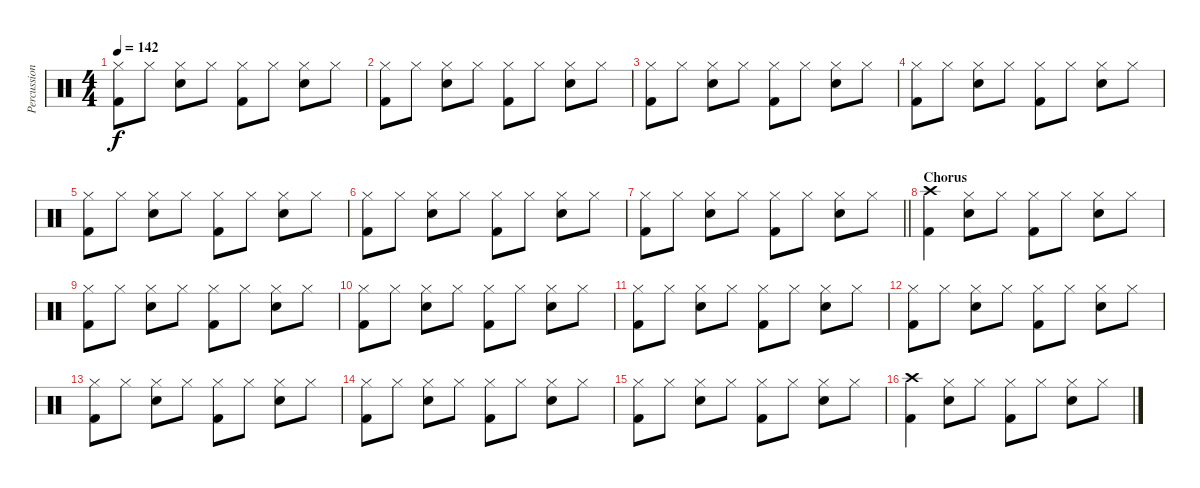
\track ("Percussion" "Percussion") {instrument percussion}
\staff {score}
\articulation defaults
\ts (4 4)
\tempo 142
\clef neutral
\ks c
("Hi-Hat (closed)" "Kick (hit) 2").8{dy f} "Hi-Hat (closed)".8 ("Hi-Hat (closed)" "Snare (hit) 2").8 "Hi-Hat (closed)".8 ("Hi-Hat (closed)" "Kick (hit) 2").8 "Hi-Hat (closed)".8 ("Hi-Hat (closed)" "Snare (hit) 2").8 "Hi-Hat (closed)".8 |
("Hi-Hat (closed)" "Kick (hit) 2").8 "Hi-Hat (closed)".8 ("Hi-Hat (closed)" "Snare (hit) 2").8 "Hi-Hat (closed)".8 ("Hi-Hat (closed)" "Kick (hit) 2").8 "Hi-Hat (closed)".8 ("Hi-Hat (closed)" "Snare (hit) 2").8 "Hi-Hat (closed)".8 |
("Hi-Hat (closed)" "Kick (hit) 2").8 "Hi-Hat (closed)".8 ("Hi-Hat (closed)" "Snare (hit) 2").8 "Hi-Hat (closed)".8 ("Hi-Hat (closed)" "Kick (hit) 2").8 "Hi-Hat (closed)".8 ("Hi-Hat (closed)" "Snare (hit) 2").8 "Hi-Hat (closed)".8 |
("Hi-Hat (closed)" "Kick (hit) 2").8 "Hi-Hat (closed)".8 ("Hi-Hat (closed)" "Snare (hit) 2").8 "Hi-Hat (closed)".8 ("Hi-Hat (closed)" "Kick (hit) 2").8 "Hi-Hat (closed)".8 ("Hi-Hat (closed)" "Snare (hit) 2").8 "Hi-Hat (closed)".8 |
("Hi-Hat (closed)" "Kick (hit) 2").8 "Hi-Hat (closed)".8 ("Hi-Hat (closed)" "Snare (hit) 2").8 "Hi-Hat (closed)".8 ("Hi-Hat (closed)" "Kick (hit) 2").8 "Hi-Hat (closed)".8 ("Hi-Hat (closed)" "Snare (hit) 2").8 "Hi-Hat (closed)".8 |
("Hi-Hat (closed)" "Kick (hit) 2").8 "Hi-Hat (closed)".8 ("Hi-Hat (closed)" "Snare (hit) 2").8 "Hi-Hat (closed)".8 ("Hi-Hat (closed)" "Kick (hit) 2").8 "Hi-Hat (closed)".8 ("Hi-Hat (closed)" "Snare (hit) 2").8 "Hi-Hat (closed)".8 |
\barLineRight lightlight
("Hi-Hat (closed)" "Kick (hit) 2").8 "Hi-Hat (closed)".8 ("Hi-Hat (closed)" "Snare (hit) 2").8 "Hi-Hat (closed)".8 ("Hi-Hat (closed)" "Kick (hit) 2").8 "Hi-Hat (closed)".8 ("Hi-Hat (closed)" "Snare (hit) 2").8 "Hi-Hat (closed)".8 |
\section ("" "Chorus")
("Crash high (hit)" "Kick (hit) 2").4 ("Hi-Hat (closed)" "Snare (hit) 2").8 "Hi-Hat (closed)".8 ("Hi-Hat (closed)" "Kick (hit) 2").8 "Hi-Hat (closed)".8 ("Hi-Hat (closed)" "Snare (hit) 2").8 "Hi-Hat (closed)".8 |
("Hi-Hat (closed)" "Kick (hit) 2").8 "Hi-Hat (closed)".8 ("Hi-Hat (closed)" "Snare (hit) 2").8 "Hi-Hat (closed)".8 ("Hi-Hat (closed)" "Kick (hit) 2").8 "Hi-Hat (closed)".8 ("Hi-Hat (closed)" "Snare (hit) 2").8 "Hi-Hat (closed)".8 |
("Hi-Hat (closed)" "Kick (hit) 2").8 "Hi-Hat (closed)".8 ("Hi-Hat (closed)" "Snare (hit) 2").8 "Hi-Hat (closed)".8 ("Hi-Hat (closed)" "Kick (hit) 2").8 "Hi-Hat (closed)".8 ("Hi-Hat (closed)" "Snare (hit) 2").8 "Hi-Hat (closed)".8 |
("Hi-Hat (closed)" "Kick (hit) 2").8 "Hi-Hat (closed)".8 ("Hi-Hat (closed)" "Snare (hit) 2").8 "Hi-Hat (closed)".8 ("Hi-Hat (closed)" "Kick (hit) 2").8 "Hi-Hat (closed)".8 ("Hi-Hat (closed)" "Snare (hit) 2").8 "Hi-Hat (closed)".8 |
("Hi-Hat (closed)" "Kick (hit) 2").8 "Hi-Hat (closed)".8 ("Hi-Hat (closed)" "Snare (hit) 2").8 "Hi-Hat (closed)".8 ("Hi-Hat (closed)" "Kick (hit) 2").8 "Hi-Hat (closed)".8 ("Hi-Hat (closed)" "Snare (hit) 2").8 "Hi-Hat (closed)".8 |
("Hi-Hat (closed)" "Kick (hit) 2").8 "Hi-Hat (closed)".8 ("Hi-Hat (closed)" "Snare (hit) 2").8 "Hi-Hat (closed)".8 ("Hi-Hat (closed)" "Kick (hit) 2").8 "Hi-Hat (closed)".8 ("Hi-Hat (closed)" "Snare (hit) 2").8 "Hi-Hat (closed)".8 |
("Hi-Hat (closed)" "Kick (hit) 2").8 "Hi-Hat (closed)".8 ("Hi-Hat (closed)" "Snare (hit) 2").8 "Hi-Hat (closed)".8 ("Hi-Hat (closed)" "Kick (hit) 2").8 "Hi-Hat (closed)".8 ("Hi-Hat (closed)" "Snare (hit) 2").8 "Hi-Hat (closed)".8 |
("Hi-Hat (closed)" "Kick (hit) 2").8 "Hi-Hat (closed)".8 ("Hi-Hat (closed)" "Snare (hit) 2").8 "Hi-Hat (closed)".8 ("Hi-Hat (closed)" "Kick (hit) 2").8 "Hi-Hat (closed)".8 ("Hi-Hat (closed)" "Snare (hit) 2").8 "Hi-Hat (closed)".8 |
("Crash high (hit)" "Kick (hit) 2").4 ("Hi-Hat (closed)" "Snare (hit) 2").8 "Hi-Hat (closed)".8 ("Hi-Hat (closed)" "Kick (hit) 2").8 "Hi-Hat (closed)".8 ("Hi-Hat (closed)" "Snare (hit) 2").8 "Hi-Hat (closed)".8
